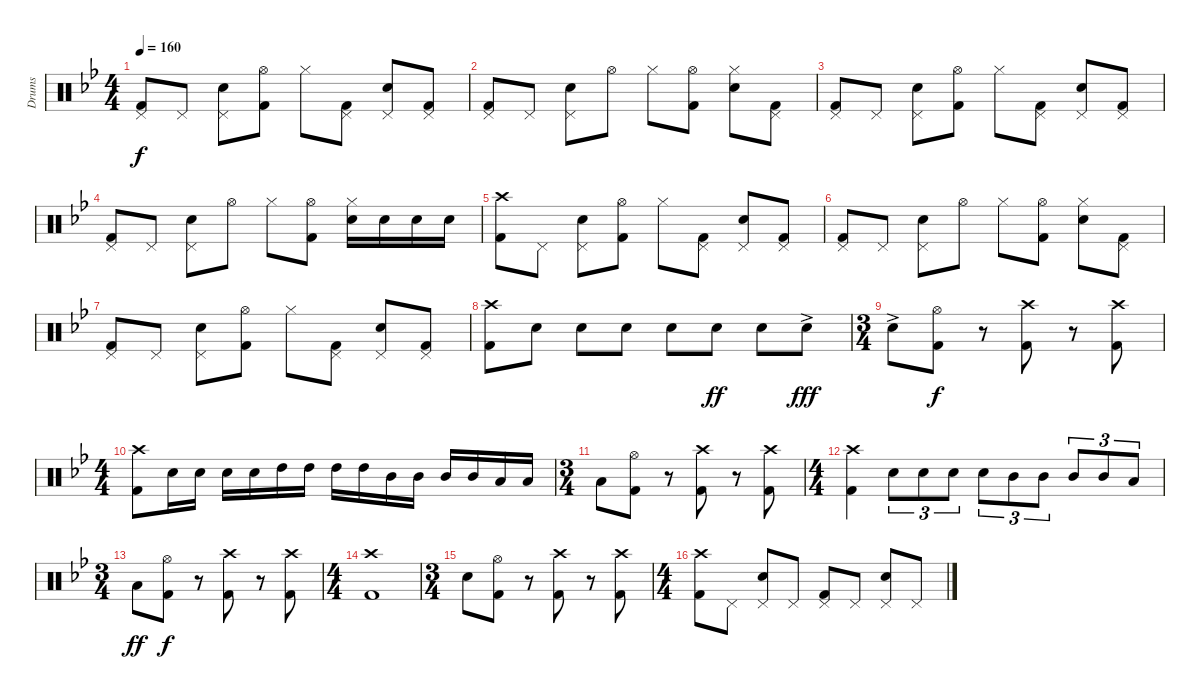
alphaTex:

\track ("Drums" "Drums") {instrument percussion}
\staff {score}
\articulation defaults
\ts (4 4)
\tempo 160
\clef neutral
\ks bb
("Pedal Hi-Hat (hit)" "Kick (hit) 2").8{dy f} "Pedal Hi-Hat (hit)".8 ("Pedal Hi-Hat (hit)" "Electric Snare (hit)").8 ("Hi-Hat (open)" "Kick (hit) 2").8 "Hi-Hat (closed)".8 ("Pedal Hi-Hat (hit)" "Kick (hit) 2").8 ("Pedal Hi-Hat (hit)" "Electric Snare (hit)").8 ("Pedal Hi-Hat (hit)" "Kick (hit) 2").8 |
("Pedal Hi-Hat (hit)" "Kick (hit) 2").8 "Pedal Hi-Hat (hit)".8 ("Pedal Hi-Hat (hit)" "Electric Snare (hit)").8 "Hi-Hat (open)".8 "Hi-Hat (closed)".8 ("Hi-Hat (open)" "Kick (hit) 2").8 ("Hi-Hat (closed)" "Electric Snare (hit)").8 ("Pedal Hi-Hat (hit)" "Kick (hit) 2").8 |
("Pedal Hi-Hat (hit)" "Kick (hit) 2").8 "Pedal Hi-Hat (hit)".8 ("Pedal Hi-Hat (hit)" "Electric Snare (hit)").8 ("Hi-Hat (open)" "Kick (hit) 2").8 "Hi-Hat (closed)".8 ("Pedal Hi-Hat (hit)" "Kick (hit) 2").8 ("Pedal Hi-Hat (hit)" "Electric Snare (hit)").8 ("Pedal Hi-Hat (hit)" "Kick (hit) 2").8 |
("Pedal Hi-Hat (hit)" "Kick (hit) 2").8 "Pedal Hi-Hat (hit)".8 ("Pedal Hi-Hat (hit)" "Electric Snare (hit)").8 "Hi-Hat (open)".8 "Hi-Hat (closed)".8 ("Hi-Hat (open)" "Kick (hit) 2").8 ("Hi-Hat (closed)" "Electric Snare (hit)").16 "Electric Snare (hit)".16 "Electric Snare (hit)".16 "Electric Snare (hit)".16 |
("Crash high (hit)" "Kick (hit) 2").8 "Pedal Hi-Hat (hit)".8 ("Pedal Hi-Hat (hit)" "Electric Snare (hit)").8 ("Hi-Hat (open)" "Kick (hit) 2").8 "Hi-Hat (closed)".8 ("Pedal Hi-Hat (hit)" "Kick (hit) 2").8 ("Pedal Hi-Hat (hit)" "Electric Snare (hit)").8 ("Pedal Hi-Hat (hit)" "Kick (hit) 2").8 |
("Pedal Hi-Hat (hit)" "Kick (hit) 2").8 "Pedal Hi-Hat (hit)".8 ("Pedal Hi-Hat (hit)" "Electric Snare (hit)").8 "Hi-Hat (open)".8 "Hi-Hat (closed)".8 ("Hi-Hat (open)" "Kick (hit) 2").8 ("Hi-Hat (closed)" "Electric Snare (hit)").8 ("Pedal Hi-Hat (hit)" "Kick (hit) 2").8 |
("Pedal Hi-Hat (hit)" "Kick (hit) 2").8 "Pedal Hi-Hat (hit)".8 ("Pedal Hi-Hat (hit)" "Electric Snare (hit)").8 ("Hi-Hat (open)" "Kick (hit) 2").8 "Hi-Hat (closed)".8 ("Pedal Hi-Hat (hit)" "Kick (hit) 2").8 ("Pedal Hi-Hat (hit)" "Electric Snare (hit)").8 ("Pedal Hi-Hat (hit)" "Kick (hit) 2").8 |
("Crash high (hit)" "Kick (hit) 2").8 "Electric Snare (hit)".8 "Electric Snare (hit)".8 "Electric Snare (hit)".8 "Electric Snare (hit)".8 "Electric Snare (hit)".8{dy ff} "Electric Snare (hit)".8 "Electric Snare (hit)"{ac}.8{dy fff} |
\ts (3 4)
"Electric Snare (hit)"{ac}.8 ("Hi-Hat (open)" "Kick (hit) 2").8{dy f} r.8 ("Crash high (hit)" "Kick (hit) 2").8 r.8 ("Crash high (hit)" "Kick (hit) 2").8 |
\ts (4 4)
("Crash high (hit)" "Kick (hit) 2").8 "Electric Snare (hit)".16 "Electric Snare (hit)".16 "Electric Snare (hit)".16 "Electric Snare (hit)".16 "High Tom (hit)".16 "High Tom (hit)".16 "High Tom (hit)".16 "High Tom (hit)".16 "Mid Tom (hit)".16 "Mid Tom (hit)".16 "Mid Tom (hit)".16 "Mid Tom (hit)".16 "Low Tom (hit)".16 "Low Tom (hit)".16 |
\ts (3 4)
"Low Tom (hit)".8 ("Hi-Hat (open)" "Kick (hit) 2").8 r.8 ("Crash high (hit)" "Kick (hit) 2").8 r.8 ("Crash high (hit)" "Kick (hit) 2").8 |
\ts (4 4)
("Crash high (hit)" "Kick (hit) 2").4 "Electric Snare (hit)".8{tu (3 2)} "Electric Snare (hit)".8{tu (3 2)} "Electric Snare (hit)".8{tu (3 2)} "Electric Snare (hit)".8{tu (3 2)} "Mid Tom (hit)".8{tu (3 2)} "Mid Tom (hit)".8{tu (3 2)} "Mid Tom (hit)".8{tu (3 2)} "Mid Tom (hit)".8{tu (3 2)} "Low Tom (hit)".8{tu (3 2)} |
\ts (3 4)
"Low Tom (hit)".8{dy ff} ("Hi-Hat (open)" "Kick (hit) 2").8{dy f} r.8 ("Crash high (hit)" "Kick (hit) 2").8 r.8 ("Crash high (hit)" "Kick (hit) 2").8 |
\ts (4 4)
("Crash high (hit)" "Kick (hit) 2").1 |
\ts (3 4)
"Electric Snare (hit)".8 ("Hi-Hat (open)" "Kick (hit) 2").8 r.8 ("Crash high (hit)" "Kick (hit) 2").8 r.8 ("Crash high (hit)" "Kick (hit) 2").8 |
\ts (4 4)
("Crash high (hit)" "Kick (hit) 2").8 "Pedal Hi-Hat (hit)".8 ("Pedal Hi-Hat (hit)" "Electric Snare (hit)").8 "Pedal Hi-Hat (hit)".8 ("Pedal Hi-Hat (hit)" "Kick (hit) 2").8 "Pedal Hi-Hat (hit)".8 ("Pedal Hi-Hat (hit)" "Electric Snare (hit)").8 "Pedal Hi-Hat (hit)".8
